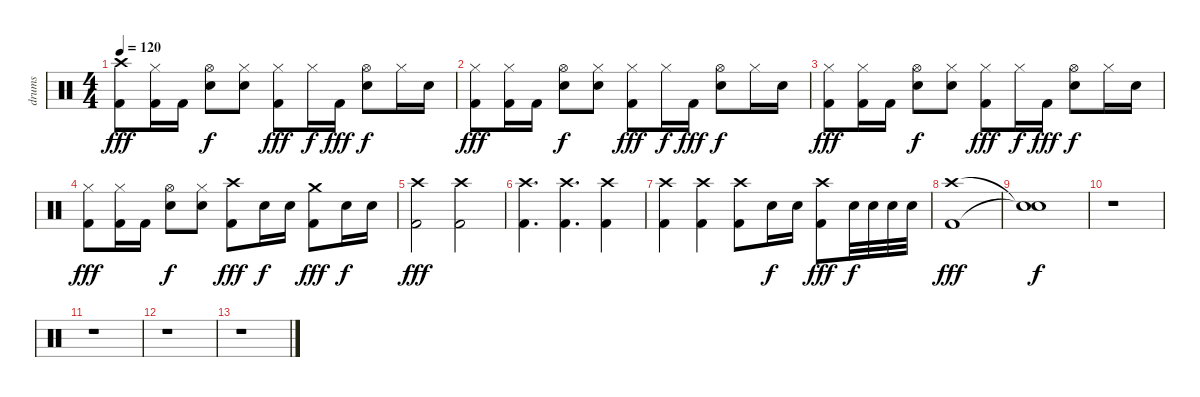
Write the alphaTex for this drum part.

\track ("drums" "drums") {instrument percussion}
\staff {score}
\articulation defaults
\ts (4 4)
\tempo 120
\clef neutral
\ks c
("Crash high (hit)" "Kick (hit) 2").8{dy fff} ("Hi-Hat (closed)" "Kick (hit) 2").16 "Kick (hit) 2".16 ("Hi-Hat (open)" "Snare (hit) 2").8{dy f} ("Hi-Hat (closed)" "Snare (hit) 2").8 ("Hi-Hat (closed)" "Kick (hit) 2").8{dy fff} "Hi-Hat (closed)".16{dy f} "Kick (hit) 2".16{dy fff} ("Hi-Hat (open)" "Snare (hit) 2").8{dy f} "Hi-Hat (closed)".16 "Snare (hit) 2".16 |
("Hi-Hat (closed)" "Kick (hit) 2").8{dy fff} ("Hi-Hat (closed)" "Kick (hit) 2").16 "Kick (hit) 2".16 ("Hi-Hat (open)" "Snare (hit) 2").8{dy f} ("Hi-Hat (closed)" "Snare (hit) 2").8 ("Hi-Hat (closed)" "Kick (hit) 2").8{dy fff} "Hi-Hat (closed)".16{dy f} "Kick (hit) 2".16{dy fff} ("Hi-Hat (open)" "Snare (hit) 2").8{dy f} "Hi-Hat (closed)".16 "Snare (hit) 2".16 |
("Hi-Hat (closed)" "Kick (hit) 2").8{dy fff} ("Hi-Hat (closed)" "Kick (hit) 2").16 "Kick (hit) 2".16 ("Hi-Hat (open)" "Snare (hit) 2").8{dy f} ("Hi-Hat (closed)" "Snare (hit) 2").8 ("Hi-Hat (closed)" "Kick (hit) 2").8{dy fff} "Hi-Hat (closed)".16{dy f} "Kick (hit) 2".16{dy fff} ("Hi-Hat (open)" "Snare (hit) 2").8{dy f} "Hi-Hat (closed)".16 "Snare (hit) 2".16 |
("Hi-Hat (closed)" "Kick (hit) 2").8{dy fff} ("Hi-Hat (closed)" "Kick (hit) 2").16 "Kick (hit) 2".16 ("Hi-Hat (open)" "Snare (hit) 2").8{dy f} ("Hi-Hat (closed)" "Snare (hit) 2").8 ("Crash high (hit)" "Kick (hit) 2").8{dy fff} "Snare (hit) 2".16{dy f} "Snare (hit) 2".16 ("Crash medium (hit)" "Kick (hit) 2").8{dy fff} "Snare (hit) 2".16{dy f} "Snare (hit) 2".16 |
("Crash high (hit)" "Kick (hit) 2").2{dy fff} ("Crash high (hit)" "Kick (hit) 2").2 |
("Crash high (hit)" "Kick (hit) 2").4{d} ("Crash high (hit)" "Kick (hit) 2").4{d} ("Crash high (hit)" "Kick (hit) 2").4 |
("Crash high (hit)" "Kick (hit) 2").4 ("Crash high (hit)" "Kick (hit) 2").4 ("Crash high (hit)" "Kick (hit) 2").8 "Snare (hit) 2".16{dy f} "Snare (hit) 2".16 ("Crash high (hit)" "Kick (hit) 2").8{dy fff} "Snare (hit) 2".32{dy f} "Snare (hit) 2".32 "Snare (hit) 2".32 "Snare (hit) 2".32 |
("Crash high (hit)" "Kick (hit) 2").1{dy fff} |
("Snare (hit)"{t} "Snare (hit)"{t}).1{dy f} |
r.1 |
r.1 |
r.1 |
r.1
